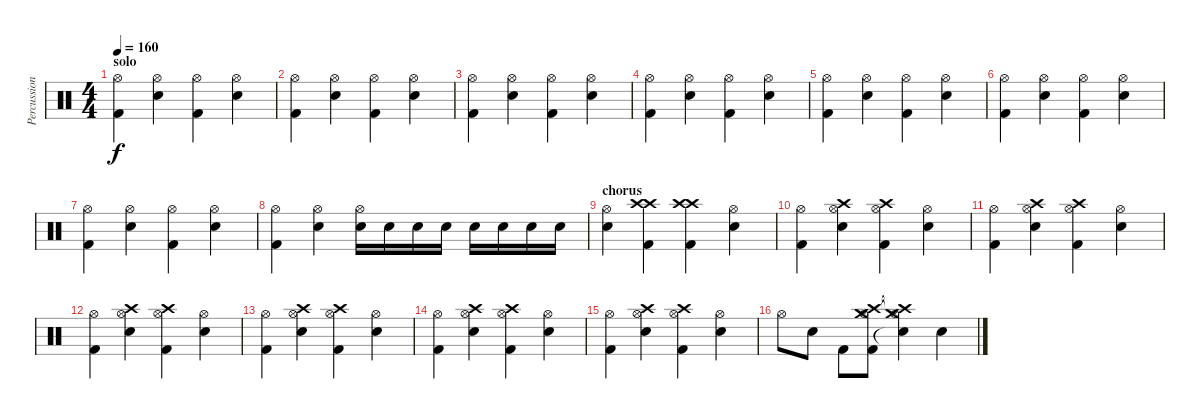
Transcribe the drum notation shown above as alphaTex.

\track ("Percussion" "Percussion") {instrument percussion}
\staff {score}
\articulation defaults
\ts (4 4)
\section ("" "solo")
\tempo 160
\clef neutral
\ks c
("Hi-Hat (open)" "Kick (hit) 2").4{dy f} ("Hi-Hat (open)" "Snare (hit) 2").4 ("Hi-Hat (open)" "Kick (hit) 2").4 ("Hi-Hat (open)" "Snare (hit) 2").4 |
("Hi-Hat (open)" "Kick (hit) 2").4 ("Hi-Hat (open)" "Snare (hit) 2").4 ("Hi-Hat (open)" "Kick (hit) 2").4 ("Hi-Hat (open)" "Snare (hit) 2").4 |
("Hi-Hat (open)" "Kick (hit) 2").4 ("Hi-Hat (open)" "Snare (hit) 2").4 ("Hi-Hat (open)" "Kick (hit) 2").4 ("Hi-Hat (open)" "Snare (hit) 2").4 |
("Hi-Hat (open)" "Kick (hit) 2").4 ("Hi-Hat (open)" "Snare (hit) 2").4 ("Hi-Hat (open)" "Kick (hit) 2").4 ("Hi-Hat (open)" "Snare (hit) 2").4 |
("Hi-Hat (open)" "Kick (hit) 2").4 ("Hi-Hat (open)" "Snare (hit) 2").4 ("Hi-Hat (open)" "Kick (hit) 2").4 ("Hi-Hat (open)" "Snare (hit) 2").4 |
("Hi-Hat (open)" "Kick (hit) 2").4 ("Hi-Hat (open)" "Snare (hit) 2").4 ("Hi-Hat (open)" "Kick (hit) 2").4 ("Hi-Hat (open)" "Snare (hit) 2").4 |
("Hi-Hat (open)" "Kick (hit) 2").4 ("Hi-Hat (open)" "Snare (hit) 2").4 ("Hi-Hat (open)" "Kick (hit) 2").4 ("Hi-Hat (open)" "Snare (hit) 2").4 |
("Hi-Hat (open)" "Kick (hit) 2").4 ("Hi-Hat (open)" "Snare (hit) 2").4 ("Hi-Hat (open)" "Snare (hit) 2").16 "Snare (hit) 2".16 "Snare (hit) 2".16 "Snare (hit) 2".16 "Snare (hit) 2".16 "Snare (hit) 2".16 "Snare (hit) 2".16 "Snare (hit) 2".16 |
\section ("" "chorus")
("Hi-Hat (open)" "Snare (hit) 2").4 ("Crash high (hit)" "Crash high (hit)" "Kick (hit) 2").4 ("Crash high (hit)" "Crash high (hit)" "Kick (hit) 2").4 ("Hi-Hat (open)" "Snare (hit) 2").4 |
("Hi-Hat (open)" "Kick (hit) 2").4 ("Hi-Hat (open)" "Crash high (hit)" "Snare (hit) 2").4 ("Hi-Hat (open)" "Crash high (hit)" "Kick (hit) 2").4 ("Hi-Hat (open)" "Snare (hit) 2").4 |
("Hi-Hat (open)" "Kick (hit) 2").4 ("Hi-Hat (open)" "Crash high (hit)" "Snare (hit) 2").4 ("Hi-Hat (open)" "Crash high (hit)" "Kick (hit) 2").4 ("Hi-Hat (open)" "Snare (hit) 2").4 |
("Hi-Hat (open)" "Kick (hit) 2").4 ("Hi-Hat (open)" "Crash high (hit)" "Snare (hit) 2").4 ("Hi-Hat (open)" "Crash high (hit)" "Kick (hit) 2").4 ("Hi-Hat (open)" "Snare (hit) 2").4 |
("Hi-Hat (open)" "Kick (hit) 2").4 ("Hi-Hat (open)" "Crash high (hit)" "Snare (hit) 2").4 ("Hi-Hat (open)" "Crash high (hit)" "Kick (hit) 2").4 ("Hi-Hat (open)" "Snare (hit) 2").4 |
("Hi-Hat (open)" "Kick (hit) 2").4 ("Hi-Hat (open)" "Crash high (hit)" "Snare (hit) 2").4 ("Hi-Hat (open)" "Crash high (hit)" "Kick (hit) 2").4 ("Hi-Hat (open)" "Snare (hit) 2").4 |
("Hi-Hat (open)" "Kick (hit) 2").4 ("Hi-Hat (open)" "Crash high (hit)" "Snare (hit) 2").4 ("Hi-Hat (open)" "Crash high (hit)" "Kick (hit) 2").4 ("Hi-Hat (open)" "Snare (hit) 2").4 |
"Hi-Hat (open)".8 "Snare (hit) 2".8 "Kick (hit) 2".8 ("Crash high (hit)" "Hi-Hat (open)" "Crash medium (hit)" "Kick (hit) 2").8 ("Crash high (hit)"{t} "Hi-Hat (open)"{t} "Crash medium (hit)"{t} "Snare (hit) 2"{t}).4 "Snare (hit) 2".4
